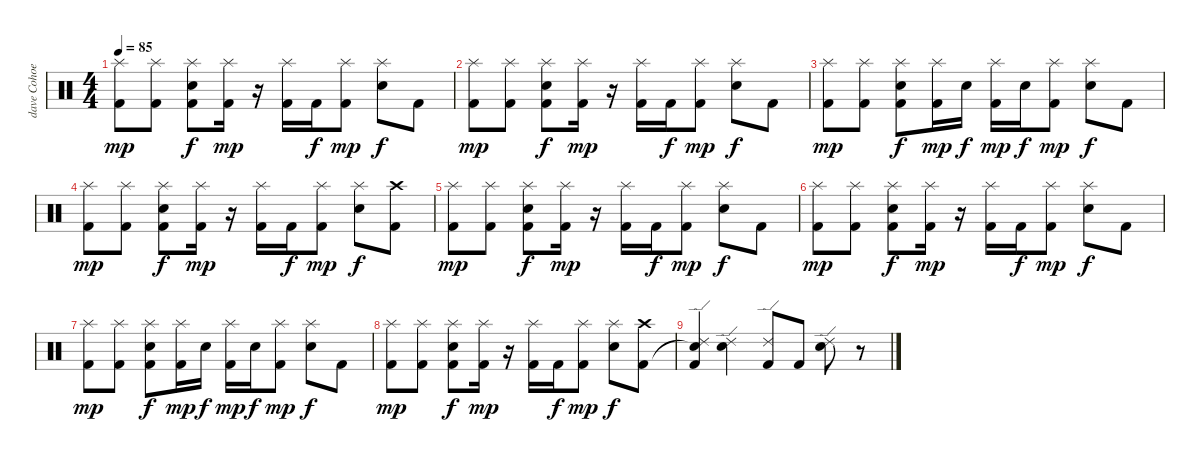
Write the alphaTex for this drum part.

\track ("dave Cohoe" "dave Cohoe") {instrument percussion}
\staff {score}
\articulation defaults
\ts (4 4)
\tempo 85
\clef neutral
\ks c
("Splash (hit)" "Kick (hit) 2").8{dy mp volume 12} ("Splash (hit)" "Kick (hit) 2").8 ("Splash (hit)" "Electric Snare (hit)" "Kick (hit) 2").8{dy f} ("Splash (hit)" "Kick (hit) 2").16{dy mp} r.16 ("Splash (hit)" "Kick (hit) 2").16 "Kick (hit) 2".16{dy f} ("Splash (hit)" "Kick (hit) 2").8{dy mp} ("Splash (hit)" "Electric Snare (hit)").8{dy f} "Kick (hit) 2".8 |
("Splash (hit)" "Kick (hit) 2").8{dy mp volume 12} ("Splash (hit)" "Kick (hit) 2").8 ("Splash (hit)" "Electric Snare (hit)" "Kick (hit) 2").8{dy f} ("Splash (hit)" "Kick (hit) 2").16{dy mp} r.16 ("Splash (hit)" "Kick (hit) 2").16 "Kick (hit) 2".16{dy f} ("Splash (hit)" "Kick (hit) 2").8{dy mp} ("Splash (hit)" "Electric Snare (hit)").8{dy f} "Kick (hit) 2".8 |
("Splash (hit)" "Kick (hit) 2").8{dy mp volume 12} ("Splash (hit)" "Kick (hit) 2").8 ("Splash (hit)" "Electric Snare (hit)" "Kick (hit) 2").8{dy f} ("Splash (hit)" "Kick (hit) 2").16{dy mp} "Snare (hit) 2".16{dy f} ("Splash (hit)" "Kick (hit) 2").16{dy mp} "Electric Snare (hit)".16{dy f} ("Splash (hit)" "Kick (hit) 2").8{dy mp} ("Splash (hit)" "Electric Snare (hit)").8{dy f} "Kick (hit) 2".8 |
("Splash (hit)" "Kick (hit) 2").8{dy mp volume 12} ("Splash (hit)" "Kick (hit) 2").8 ("Splash (hit)" "Electric Snare (hit)" "Kick (hit) 2").8{dy f} ("Splash (hit)" "Kick (hit) 2").16{dy mp} r.16 ("Splash (hit)" "Kick (hit) 2").16 "Kick (hit) 2".16{dy f} ("Splash (hit)" "Kick (hit) 2").8{dy mp} ("Splash (hit)" "Electric Snare (hit)").8{dy f} ("Crash high (hit)" "Kick (hit) 2").8 |
("Splash (hit)" "Kick (hit) 2").8{dy mp volume 12} ("Splash (hit)" "Kick (hit) 2").8 ("Splash (hit)" "Electric Snare (hit)" "Kick (hit) 2").8{dy f} ("Splash (hit)" "Kick (hit) 2").16{dy mp} r.16 ("Splash (hit)" "Kick (hit) 2").16 "Kick (hit) 2".16{dy f} ("Splash (hit)" "Kick (hit) 2").8{dy mp} ("Splash (hit)" "Electric Snare (hit)").8{dy f} "Kick (hit) 2".8 |
("Splash (hit)" "Kick (hit) 2").8{dy mp volume 12} ("Splash (hit)" "Kick (hit) 2").8 ("Splash (hit)" "Electric Snare (hit)" "Kick (hit) 2").8{dy f} ("Splash (hit)" "Kick (hit) 2").16{dy mp} r.16 ("Splash (hit)" "Kick (hit) 2").16 "Kick (hit) 2".16{dy f} ("Splash (hit)" "Kick (hit) 2").8{dy mp} ("Splash (hit)" "Electric Snare (hit)").8{dy f} "Kick (hit) 2".8 |
("Splash (hit)" "Kick (hit) 2").8{dy mp volume 12} ("Splash (hit)" "Kick (hit) 2").8 ("Splash (hit)" "Electric Snare (hit)" "Kick (hit) 2").8{dy f} ("Splash (hit)" "Kick (hit) 2").16{dy mp} "Snare (hit) 2".16{dy f} ("Splash (hit)" "Kick (hit) 2").16{dy mp} "Electric Snare (hit)".16{dy f} ("Splash (hit)" "Kick (hit) 2").8{dy mp} ("Splash (hit)" "Electric Snare (hit)").8{dy f} "Kick (hit) 2".8 |
("Splash (hit)" "Kick (hit) 2").8{dy mp volume 12} ("Splash (hit)" "Kick (hit) 2").8 ("Splash (hit)" "Electric Snare (hit)" "Kick (hit) 2").8{dy f} ("Splash (hit)" "Kick (hit) 2").16{dy mp} r.16 ("Splash (hit)" "Kick (hit) 2").16 "Kick (hit) 2".16{dy f} ("Splash (hit)" "Kick (hit) 2").8{dy mp} ("Splash (hit)" "Electric Snare (hit)").8{dy f} ("Crash high (hit)" "Kick (hit) 2").8 |
("Ride (edge) 2" "Snare (hit)"{t} "Kick (hit) 2").4 ("Ride (edge) 2" "Electric Snare (hit)").4 ("Ride (edge) 2" "Kick (hit) 2").8 "Kick (hit) 2".8 ("Ride (edge) 2" "Electric Snare (hit)").8 r.8
